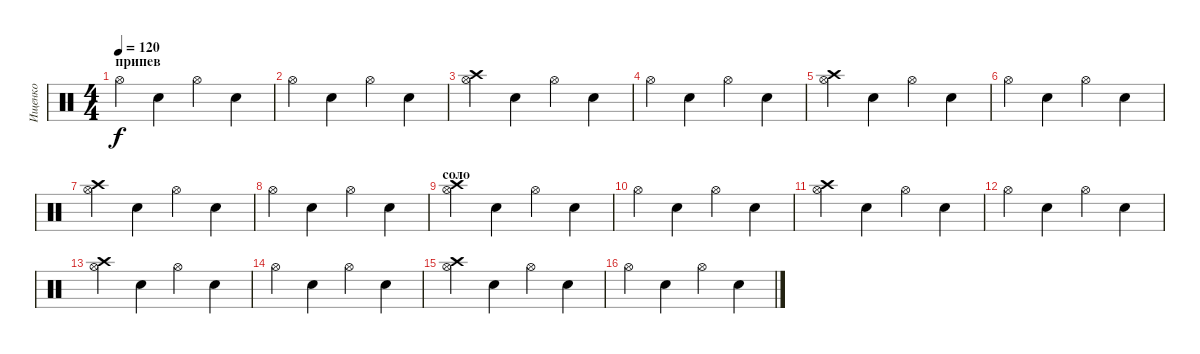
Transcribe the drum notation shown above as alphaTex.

\track ("Ищенко" "Ищенко") {instrument percussion}
\staff {score}
\articulation defaults
\ts (4 4)
\section ("" "припев")
\tempo 120
\clef neutral
\ks c "Hi-Hat (open)".4{dy f} "Electric Snare (hit)".4 "Hi-Hat (open)".4 "Electric Snare (hit)".4
|
"Hi-Hat (open)".4 "Electric Snare (hit)".4 "Hi-Hat (open)".4 "Electric Snare (hit)".4 |
("Hi-Hat (open)" "Crash high (hit)").4 "Electric Snare (hit)".4 "Hi-Hat (open)".4 "Electric Snare (hit)".4 |
"Hi-Hat (open)".4 "Electric Snare (hit)".4 "Hi-Hat (open)".4 "Electric Snare (hit)".4 |
("Hi-Hat (open)" "Crash high (hit)").4 "Electric Snare (hit)".4 "Hi-Hat (open)".4 "Electric Snare (hit)".4 |
"Hi-Hat (open)".4 "Electric Snare (hit)".4 "Hi-Hat (open)".4 "Electric Snare (hit)".4 |
("Hi-Hat (open)" "Crash high (hit)").4 "Electric Snare (hit)".4 "Hi-Hat (open)".4 "Electric Snare (hit)".4 |
"Hi-Hat (open)".4 "Electric Snare (hit)".4 "Hi-Hat (open)".4 "Electric Snare (hit)".4 |
\section ("" "соло")
("Hi-Hat (open)" "Crash high (hit)").4 "Electric Snare (hit)".4 "Hi-Hat (open)".4 "Electric Snare (hit)".4 |
"Hi-Hat (open)".4 "Electric Snare (hit)".4 "Hi-Hat (open)".4 "Electric Snare (hit)".4 |
("Hi-Hat (open)" "Crash high (hit)").4 "Electric Snare (hit)".4 "Hi-Hat (open)".4 "Electric Snare (hit)".4 |
"Hi-Hat (open)".4 "Electric Snare (hit)".4 "Hi-Hat (open)".4 "Electric Snare (hit)".4 |
("Hi-Hat (open)" "Crash high (hit)").4 "Electric Snare (hit)".4 "Hi-Hat (open)".4 "Electric Snare (hit)".4 |
"Hi-Hat (open)".4 "Electric Snare (hit)".4 "Hi-Hat (open)".4 "Electric Snare (hit)".4 |
("Hi-Hat (open)" "Crash high (hit)").4 "Electric Snare (hit)".4 "Hi-Hat (open)".4 "Electric Snare (hit)".4 |
"Hi-Hat (open)".4 "Electric Snare (hit)".4 "Hi-Hat (open)".4 "Electric Snare (hit)".4
